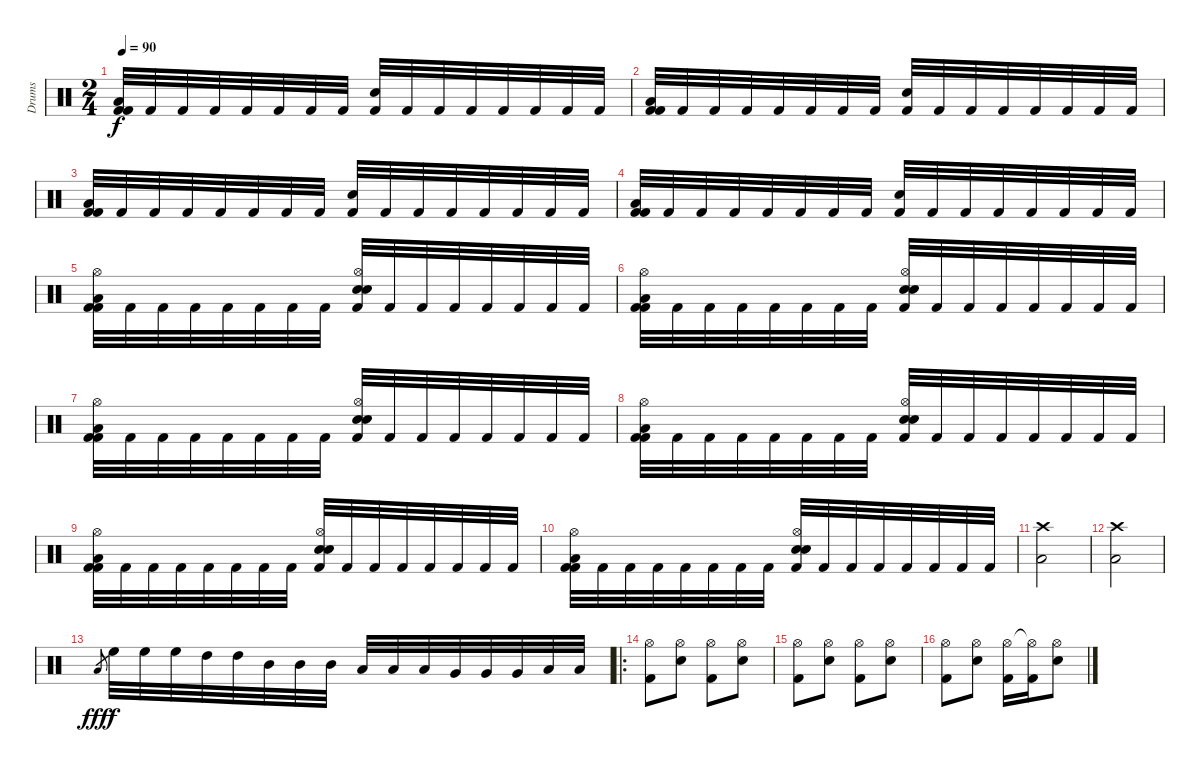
\track ("Drums" "Drums") {instrument percussion}
\staff {score}
\articulation defaults
\ts (2 4)
\tempo 90
\clef neutral
\ks c
("Kick (hit) 2" "Low Floor Tom (hit)" "Kick (hit) 2").32{dy f} "Kick (hit) 2".32 "Kick (hit) 2".32 "Kick (hit) 2".32 "Kick (hit) 2".32 "Kick (hit) 2".32 "Kick (hit) 2".32 "Kick (hit) 2".32 ("Snare (hit) 2" "Kick (hit) 2").32 "Kick (hit) 2".32 "Kick (hit) 2".32 "Kick (hit) 2".32 "Kick (hit) 2".32 "Kick (hit) 2".32 "Kick (hit) 2".32 "Kick (hit) 2".32 |
("Kick (hit) 2" "Low Floor Tom (hit)" "Kick (hit) 2").32 "Kick (hit) 2".32 "Kick (hit) 2".32 "Kick (hit) 2".32 "Kick (hit) 2".32 "Kick (hit) 2".32 "Kick (hit) 2".32 "Kick (hit) 2".32 ("Snare (hit) 2" "Kick (hit) 2").32 "Kick (hit) 2".32 "Kick (hit) 2".32 "Kick (hit) 2".32 "Kick (hit) 2".32 "Kick (hit) 2".32 "Kick (hit) 2".32 "Kick (hit) 2".32 |
("Kick (hit) 2" "Low Floor Tom (hit)" "Kick (hit) 2").32 "Kick (hit) 2".32 "Kick (hit) 2".32 "Kick (hit) 2".32 "Kick (hit) 2".32 "Kick (hit) 2".32 "Kick (hit) 2".32 "Kick (hit) 2".32 ("Snare (hit) 2" "Kick (hit) 2").32 "Kick (hit) 2".32 "Kick (hit) 2".32 "Kick (hit) 2".32 "Kick (hit) 2".32 "Kick (hit) 2".32 "Kick (hit) 2".32 "Kick (hit) 2".32 |
("Kick (hit) 2" "Low Floor Tom (hit)" "Kick (hit) 2").32 "Kick (hit) 2".32 "Kick (hit) 2".32 "Kick (hit) 2".32 "Kick (hit) 2".32 "Kick (hit) 2".32 "Kick (hit) 2".32 "Kick (hit) 2".32 ("Snare (hit) 2" "Kick (hit) 2").32 "Kick (hit) 2".32 "Kick (hit) 2".32 "Kick (hit) 2".32 "Kick (hit) 2".32 "Kick (hit) 2".32 "Kick (hit) 2".32 "Kick (hit) 2".32 |
("Hi-Hat (open)" "Kick (hit) 2" "Low Floor Tom (hit)" "Kick (hit) 2").32 "Kick (hit) 2".32 "Kick (hit) 2".32 "Kick (hit) 2".32 "Kick (hit) 2".32 "Kick (hit) 2".32 "Kick (hit) 2".32 "Kick (hit) 2".32 ("Hi-Hat (open)" "Snare (hit) 2" "Electric Snare (hit)" "Kick (hit) 2").32 "Kick (hit) 2".32 "Kick (hit) 2".32 "Kick (hit) 2".32 "Kick (hit) 2".32 "Kick (hit) 2".32 "Kick (hit) 2".32 "Kick (hit) 2".32 |
("Hi-Hat (open)" "Kick (hit) 2" "Low Floor Tom (hit)" "Kick (hit) 2").32 "Kick (hit) 2".32 "Kick (hit) 2".32 "Kick (hit) 2".32 "Kick (hit) 2".32 "Kick (hit) 2".32 "Kick (hit) 2".32 "Kick (hit) 2".32 ("Hi-Hat (open)" "Snare (hit) 2" "Electric Snare (hit)" "Kick (hit) 2").32 "Kick (hit) 2".32 "Kick (hit) 2".32 "Kick (hit) 2".32 "Kick (hit) 2".32 "Kick (hit) 2".32 "Kick (hit) 2".32 "Kick (hit) 2".32 |
("Hi-Hat (open)" "Kick (hit) 2" "Low Floor Tom (hit)" "Kick (hit) 2").32 "Kick (hit) 2".32 "Kick (hit) 2".32 "Kick (hit) 2".32 "Kick (hit) 2".32 "Kick (hit) 2".32 "Kick (hit) 2".32 "Kick (hit) 2".32 ("Hi-Hat (open)" "Snare (hit) 2" "Electric Snare (hit)" "Kick (hit) 2").32 "Kick (hit) 2".32 "Kick (hit) 2".32 "Kick (hit) 2".32 "Kick (hit) 2".32 "Kick (hit) 2".32 "Kick (hit) 2".32 "Kick (hit) 2".32 |
("Hi-Hat (open)" "Kick (hit) 2" "Low Floor Tom (hit)" "Kick (hit) 2").32 "Kick (hit) 2".32 "Kick (hit) 2".32 "Kick (hit) 2".32 "Kick (hit) 2".32 "Kick (hit) 2".32 "Kick (hit) 2".32 "Kick (hit) 2".32 ("Hi-Hat (open)" "Snare (hit) 2" "Electric Snare (hit)" "Kick (hit) 2").32 "Kick (hit) 2".32 "Kick (hit) 2".32 "Kick (hit) 2".32 "Kick (hit) 2".32 "Kick (hit) 2".32 "Kick (hit) 2".32 "Kick (hit) 2".32 |
("Hi-Hat (open)" "Kick (hit) 2" "Low Floor Tom (hit)" "Kick (hit) 2").32 "Kick (hit) 2".32 "Kick (hit) 2".32 "Kick (hit) 2".32 "Kick (hit) 2".32 "Kick (hit) 2".32 "Kick (hit) 2".32 "Kick (hit) 2".32 ("Hi-Hat (open)" "Snare (hit) 2" "Electric Snare (hit)" "Kick (hit) 2").32 "Kick (hit) 2".32 "Kick (hit) 2".32 "Kick (hit) 2".32 "Kick (hit) 2".32 "Kick (hit) 2".32 "Kick (hit) 2".32 "Kick (hit) 2".32 |
("Hi-Hat (open)" "Kick (hit) 2" "Low Floor Tom (hit)" "Kick (hit) 2").32 "Kick (hit) 2".32 "Kick (hit) 2".32 "Kick (hit) 2".32 "Kick (hit) 2".32 "Kick (hit) 2".32 "Kick (hit) 2".32 "Kick (hit) 2".32 ("Hi-Hat (open)" "Snare (hit) 2" "Electric Snare (hit)" "Kick (hit) 2").32 "Kick (hit) 2".32 "Kick (hit) 2".32 "Kick (hit) 2".32 "Kick (hit) 2".32 "Kick (hit) 2".32 "Kick (hit) 2".32 "Kick (hit) 2".32 |
("Crash high (hit)" "Low Floor Tom (hit)").2 |
("Crash high (hit)" "Low Floor Tom (hit)").2 |
"Low Floor Tom (hit)".8{gr dy fff} "High Floor Tom (hit)".32{dy f} "High Floor Tom (hit)".32 "High Floor Tom (hit)".32 "High Tom (hit)".32 "High Tom (hit)".32 "Mid Tom (hit)".32 "Mid Tom (hit)".32 "Mid Tom (hit)".32 "Low Tom (hit)".32 "Low Tom (hit)".32 "Low Tom (hit)".32 "Very Low Tom (hit)".32 "Very Low Tom (hit)".32 "Very Low Tom (hit)".32 "Low Floor Tom (hit)".32 "Low Floor Tom (hit)".32 |
\ro
("Hi-Hat (open)" "Kick (hit) 2").8 ("Hi-Hat (open)" "Electric Snare (hit)").8 ("Hi-Hat (open)" "Kick (hit) 2").8 ("Hi-Hat (open)" "Electric Snare (hit)").8 |
("Hi-Hat (open)" "Kick (hit) 2").8 ("Hi-Hat (open)" "Electric Snare (hit)").8 ("Hi-Hat (open)" "Kick (hit) 2").8 ("Hi-Hat (open)" "Electric Snare (hit)").8 |
("Hi-Hat (open)" "Kick (hit) 2").8 ("Hi-Hat (open)" "Electric Snare (hit)").8 ("Hi-Hat (open)" "Kick (hit) 2").16 ("Hi-Hat (open)"{t} "Kick (hit) 2").16 ("Hi-Hat (open)" "Electric Snare (hit)").8
